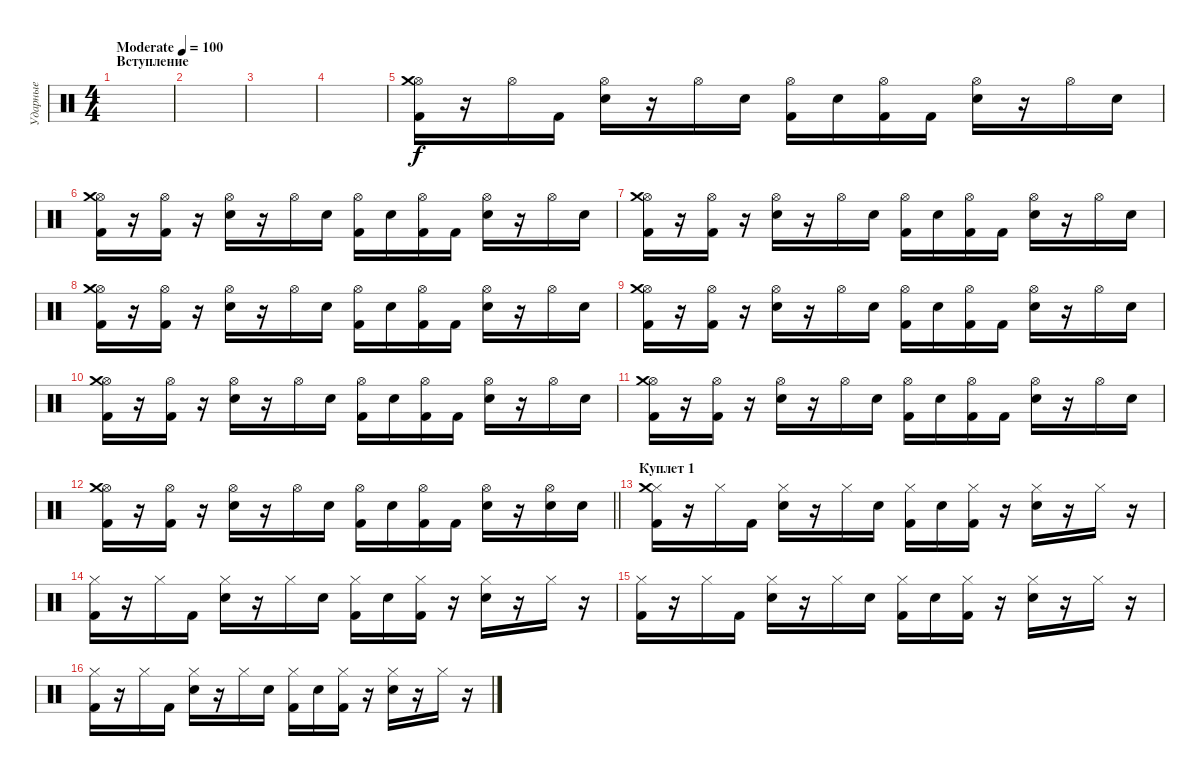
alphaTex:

\track ("Ударные" "Ударные") {instrument percussion}
\staff {score}
\articulation defaults
\ts (4 4)
\section ("" "Вступление")
\tempo (100 "Moderate")
\clef neutral
\ks c
|
|
|
|
("Hi-Hat (open)" "Kick (hit) 2" "Crash medium (hit)").16 r.16 "Hi-Hat (open)".16 "Kick (hit) 2".16 ("Hi-Hat (open)" "Electric Snare (hit)").16 r.16 "Hi-Hat (open)".16 "Electric Snare (hit)".16 ("Hi-Hat (open)" "Kick (hit) 2").16 "Electric Snare (hit)".16 ("Hi-Hat (open)" "Kick (hit) 2").16 "Kick (hit) 2".16 ("Hi-Hat (open)" "Electric Snare (hit)").16 r.16 "Hi-Hat (open)".16 "Electric Snare (hit)".16 |
("Hi-Hat (open)" "Kick (hit) 2" "Crash medium (hit)").16 r.16 ("Hi-Hat (open)" "Kick (hit) 2").16 r.16 ("Hi-Hat (open)" "Electric Snare (hit)").16 r.16 "Hi-Hat (open)".16 "Electric Snare (hit)".16 ("Hi-Hat (open)" "Kick (hit) 2").16 "Electric Snare (hit)".16 ("Hi-Hat (open)" "Kick (hit) 2").16 "Kick (hit) 2".16 ("Hi-Hat (open)" "Electric Snare (hit)").16 r.16 "Hi-Hat (open)".16 "Electric Snare (hit)".16 |
("Hi-Hat (open)" "Kick (hit) 2" "Crash medium (hit)").16 r.16 ("Hi-Hat (open)" "Kick (hit) 2").16 r.16 ("Hi-Hat (open)" "Electric Snare (hit)").16 r.16 "Hi-Hat (open)".16 "Electric Snare (hit)".16 ("Hi-Hat (open)" "Kick (hit) 2").16 "Electric Snare (hit)".16 ("Hi-Hat (open)" "Kick (hit) 2").16 "Kick (hit) 2".16 ("Hi-Hat (open)" "Electric Snare (hit)").16 r.16 "Hi-Hat (open)".16 "Electric Snare (hit)".16 |
("Hi-Hat (open)" "Kick (hit) 2" "Crash medium (hit)").16 r.16 ("Hi-Hat (open)" "Kick (hit) 2").16 r.16 ("Hi-Hat (open)" "Electric Snare (hit)").16 r.16 "Hi-Hat (open)".16 "Electric Snare (hit)".16 ("Hi-Hat (open)" "Kick (hit) 2").16 "Electric Snare (hit)".16 ("Hi-Hat (open)" "Kick (hit) 2").16 "Kick (hit) 2".16 ("Hi-Hat (open)" "Electric Snare (hit)").16 r.16 "Hi-Hat (open)".16 "Electric Snare (hit)".16 |
("Hi-Hat (open)" "Kick (hit) 2" "Crash medium (hit)").16 r.16 ("Hi-Hat (open)" "Kick (hit) 2").16 r.16 ("Hi-Hat (open)" "Electric Snare (hit)").16 r.16 "Hi-Hat (open)".16 "Electric Snare (hit)".16 ("Hi-Hat (open)" "Kick (hit) 2").16 "Electric Snare (hit)".16 ("Hi-Hat (open)" "Kick (hit) 2").16 "Kick (hit) 2".16 ("Hi-Hat (open)" "Electric Snare (hit)").16 r.16 "Hi-Hat (open)".16 "Electric Snare (hit)".16 |
("Hi-Hat (open)" "Kick (hit) 2" "Crash medium (hit)").16 r.16 ("Hi-Hat (open)" "Kick (hit) 2").16 r.16 ("Hi-Hat (open)" "Electric Snare (hit)").16 r.16 "Hi-Hat (open)".16 "Electric Snare (hit)".16 ("Hi-Hat (open)" "Kick (hit) 2").16 "Electric Snare (hit)".16 ("Hi-Hat (open)" "Kick (hit) 2").16 "Kick (hit) 2".16 ("Hi-Hat (open)" "Electric Snare (hit)").16 r.16 "Hi-Hat (open)".16 "Electric Snare (hit)".16 |
("Hi-Hat (open)" "Kick (hit) 2" "Crash medium (hit)").16 r.16 ("Hi-Hat (open)" "Kick (hit) 2").16 r.16 ("Hi-Hat (open)" "Electric Snare (hit)").16 r.16 "Hi-Hat (open)".16 "Electric Snare (hit)".16 ("Hi-Hat (open)" "Kick (hit) 2").16 "Electric Snare (hit)".16 ("Hi-Hat (open)" "Kick (hit) 2").16 "Kick (hit) 2".16 ("Hi-Hat (open)" "Electric Snare (hit)").16 r.16 "Hi-Hat (open)".16 "Electric Snare (hit)".16 |
\barLineRight lightlight
("Hi-Hat (open)" "Kick (hit) 2" "Crash medium (hit)").16 r.16 ("Hi-Hat (open)" "Kick (hit) 2").16 r.16 ("Hi-Hat (open)" "Electric Snare (hit)").16 r.16 "Hi-Hat (open)".16 "Electric Snare (hit)".16 ("Hi-Hat (open)" "Kick (hit) 2").16 "Electric Snare (hit)".16 ("Hi-Hat (open)" "Kick (hit) 2").16 "Kick (hit) 2".16 ("Hi-Hat (open)" "Electric Snare (hit)").16 r.16 ("Hi-Hat (open)" "Electric Snare (hit)").16 "Electric Snare (hit)".16 |
\section ("" "Куплет 1")
("Hi-Hat (closed)" "Kick (hit) 2" "Crash medium (hit)").16 r.16 "Hi-Hat (closed)".16 "Kick (hit) 2".16 ("Hi-Hat (closed)" "Electric Snare (hit)").16 r.16 "Hi-Hat (closed)".16 "Electric Snare (hit)".16 ("Hi-Hat (closed)" "Kick (hit) 2").16 "Electric Snare (hit)".16 ("Hi-Hat (closed)" "Kick (hit) 2").16 r.16 ("Hi-Hat (closed)" "Electric Snare (hit)").16 r.16 "Hi-Hat (closed)".16 r.16 |
("Hi-Hat (closed)" "Kick (hit) 2").16 r.16 "Hi-Hat (closed)".16 "Kick (hit) 2".16 ("Hi-Hat (closed)" "Electric Snare (hit)").16 r.16 "Hi-Hat (closed)".16 "Electric Snare (hit)".16 ("Hi-Hat (closed)" "Kick (hit) 2").16 "Electric Snare (hit)".16 ("Hi-Hat (closed)" "Kick (hit) 2").16 r.16 ("Hi-Hat (closed)" "Electric Snare (hit)").16 r.16 "Hi-Hat (closed)".16 r.16 |
("Hi-Hat (closed)" "Kick (hit) 2").16 r.16 "Hi-Hat (closed)".16 "Kick (hit) 2".16 ("Hi-Hat (closed)" "Electric Snare (hit)").16 r.16 "Hi-Hat (closed)".16 "Electric Snare (hit)".16 ("Hi-Hat (closed)" "Kick (hit) 2").16 "Electric Snare (hit)".16 ("Hi-Hat (closed)" "Kick (hit) 2").16 r.16 ("Hi-Hat (closed)" "Electric Snare (hit)").16 r.16 "Hi-Hat (closed)".16 r.16 |
("Hi-Hat (closed)" "Kick (hit) 2").16 r.16 "Hi-Hat (closed)".16 "Kick (hit) 2".16 ("Hi-Hat (closed)" "Electric Snare (hit)").16 r.16 "Hi-Hat (closed)".16 "Electric Snare (hit)".16 ("Hi-Hat (closed)" "Kick (hit) 2").16 "Electric Snare (hit)".16 ("Hi-Hat (closed)" "Kick (hit) 2").16 r.16 ("Hi-Hat (closed)" "Electric Snare (hit)").16 r.16 "Hi-Hat (closed)".16 r.16
